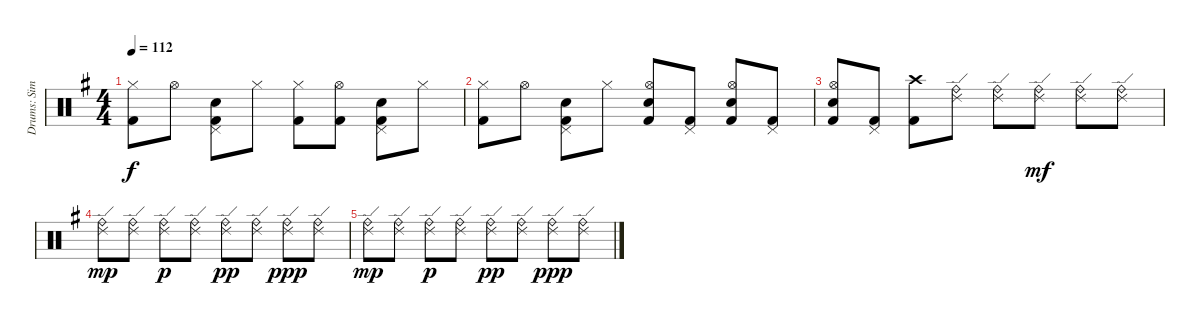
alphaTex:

\track ("Drums: Simon" "Drums: Sim") {instrument percussion}
\staff {score}
\articulation defaults
\ts (4 4)
\tempo 112
\clef neutral
\ks g
("Hi-Hat (closed)" "Kick (hit) 2").8{dy f} "Hi-Hat (open)".8 ("Pedal Hi-Hat (hit)" "Snare (hit) 2" "Kick (hit) 2").8 "Hi-Hat (closed)".8 ("Hi-Hat (closed)" "Kick (hit) 2").8 ("Hi-Hat (open)" "Kick (hit) 2").8 ("Pedal Hi-Hat (hit)" "Snare (hit) 2" "Kick (hit) 2").8 "Hi-Hat (closed)".8 |
("Hi-Hat (closed)" "Kick (hit) 2").8 "Hi-Hat (open)".8 ("Pedal Hi-Hat (hit)" "Snare (hit) 2" "Kick (hit) 2").8 "Hi-Hat (closed)".8 ("Hi-Hat (open)" "Snare (hit) 2" "Kick (hit) 2").8 ("Pedal Hi-Hat (hit)" "Kick (hit) 2").8 ("Hi-Hat (open)" "Snare (hit) 2" "Kick (hit) 2").8 ("Pedal Hi-Hat (hit)" "Kick (hit) 2").8 |
("Hi-Hat (open)" "Snare (hit) 2" "Kick (hit) 2").8 ("Pedal Hi-Hat (hit)" "Kick (hit) 2").8 ("Crash high (hit)" "Kick (hit) 2").8 ("Ride (edge) 2" "Ride (bell)").8 ("Ride (edge) 2" "Ride (bell)").8 ("Ride (edge) 2" "Ride (bell)").8{dy mf} ("Ride (edge) 2" "Ride (bell)").8 ("Ride (edge) 2" "Ride (bell)").8 |
("Ride (edge) 2" "Ride (bell)").8{dy mp} ("Ride (edge) 2" "Ride (bell)").8 ("Ride (edge) 2" "Ride (bell)").8{dy p} ("Ride (edge) 2" "Ride (bell)").8 ("Ride (edge) 2" "Ride (bell)").8{dy pp} ("Ride (edge) 2" "Ride (bell)").8 ("Ride (edge) 2" "Ride (bell)").8{dy ppp} ("Ride (edge) 2" "Ride (bell)").8 |
("Ride (edge) 2" "Ride (bell)").8{dy mp} ("Ride (edge) 2" "Ride (bell)").8 ("Ride (edge) 2" "Ride (bell)").8{dy p} ("Ride (edge) 2" "Ride (bell)").8 ("Ride (edge) 2" "Ride (bell)").8{dy pp} ("Ride (edge) 2" "Ride (bell)").8 ("Ride (edge) 2" "Ride (bell)").8{dy ppp} ("Ride (edge) 2" "Ride (bell)").8
